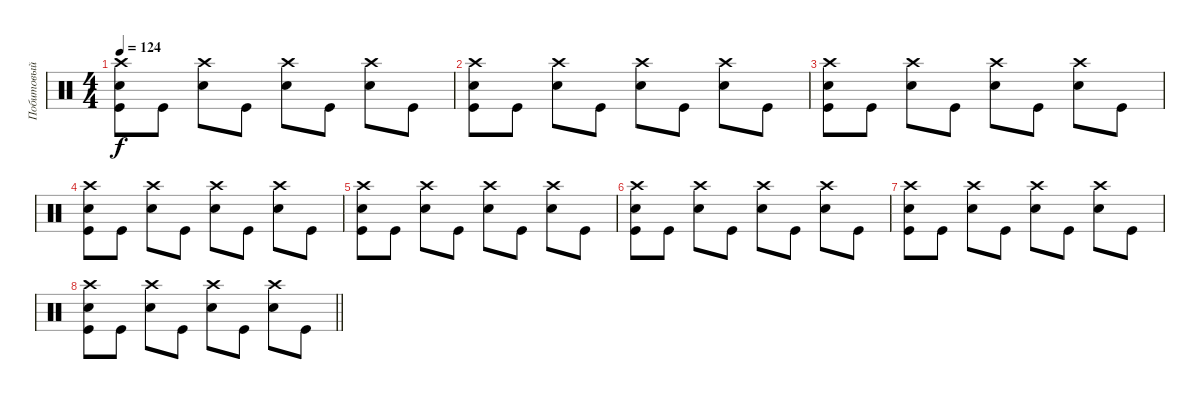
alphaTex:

\track ("Побитовый" "Побитовый") {instrument percussion}
\staff {score}
\articulation defaults
\ts (4 4)
\tempo 124
\clef neutral
\ks c
("Crash high (hit)" "Snare (hit) 2" "Kick (hit)").8{dy f} "Kick (hit)".8 ("Crash high (hit)" "Snare (hit) 2").8 "Kick (hit)".8 ("Crash high (hit)" "Snare (hit) 2").8 "Kick (hit)".8 ("Crash high (hit)" "Snare (hit) 2").8 "Kick (hit)".8 |
("Crash high (hit)" "Snare (hit) 2" "Kick (hit)").8 "Kick (hit)".8 ("Crash high (hit)" "Snare (hit) 2").8 "Kick (hit)".8 ("Crash high (hit)" "Snare (hit) 2").8 "Kick (hit)".8 ("Crash high (hit)" "Snare (hit) 2").8 "Kick (hit)".8 |
("Crash high (hit)" "Snare (hit) 2" "Kick (hit)").8 "Kick (hit)".8 ("Crash high (hit)" "Snare (hit) 2").8 "Kick (hit)".8 ("Crash high (hit)" "Snare (hit) 2").8 "Kick (hit)".8 ("Crash high (hit)" "Snare (hit) 2").8 "Kick (hit)".8 |
("Crash high (hit)" "Snare (hit) 2" "Kick (hit)").8 "Kick (hit)".8 ("Crash high (hit)" "Snare (hit) 2").8 "Kick (hit)".8 ("Crash high (hit)" "Snare (hit) 2").8 "Kick (hit)".8 ("Crash high (hit)" "Snare (hit) 2").8 "Kick (hit)".8 |
("Crash high (hit)" "Snare (hit) 2" "Kick (hit)").8 "Kick (hit)".8 ("Crash high (hit)" "Snare (hit) 2").8 "Kick (hit)".8 ("Crash high (hit)" "Snare (hit) 2").8 "Kick (hit)".8 ("Crash high (hit)" "Snare (hit) 2").8 "Kick (hit)".8 |
("Crash high (hit)" "Snare (hit) 2" "Kick (hit)").8 "Kick (hit)".8 ("Crash high (hit)" "Snare (hit) 2").8 "Kick (hit)".8 ("Crash high (hit)" "Snare (hit) 2").8 "Kick (hit)".8 ("Crash high (hit)" "Snare (hit) 2").8 "Kick (hit)".8 |
("Crash high (hit)" "Snare (hit) 2" "Kick (hit)").8 "Kick (hit)".8 ("Crash high (hit)" "Snare (hit) 2").8 "Kick (hit)".8 ("Crash high (hit)" "Snare (hit) 2").8 "Kick (hit)".8 ("Crash high (hit)" "Snare (hit) 2").8 "Kick (hit)".8 |
\barLineRight lightlight
("Crash high (hit)" "Snare (hit) 2" "Kick (hit)").8 "Kick (hit)".8 ("Crash high (hit)" "Snare (hit) 2").8 "Kick (hit)".8 ("Crash high (hit)" "Snare (hit) 2").8 "Kick (hit)".8 ("Crash high (hit)" "Snare (hit) 2").8 "Kick (hit)".8
